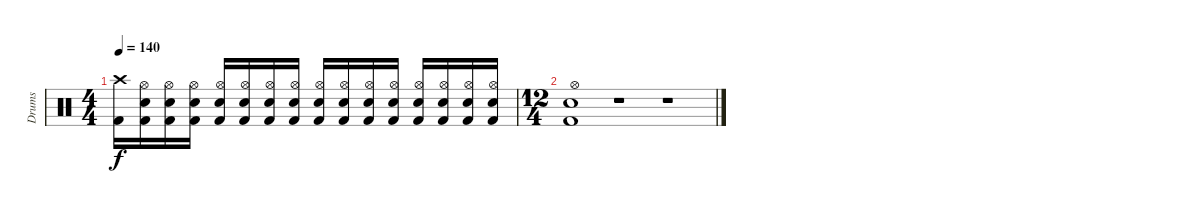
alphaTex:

\track ("Drums" "Drums") {instrument percussion}
\staff {score}
\articulation defaults
\ts (4 4)
\tempo 140
\clef neutral
\ks c
("Crash high (hit)" "Kick (hit) 2").16{dy f} ("Hi-Hat (open)" "Electric Snare (hit)" "Kick (hit) 2").16 ("Hi-Hat (open)" "Electric Snare (hit)" "Kick (hit) 2").16 ("Hi-Hat (open)" "Electric Snare (hit)" "Kick (hit) 2").16 ("Hi-Hat (open)" "Electric Snare (hit)" "Kick (hit) 2").16 ("Hi-Hat (open)" "Electric Snare (hit)" "Kick (hit) 2").16 ("Hi-Hat (open)" "Electric Snare (hit)" "Kick (hit) 2").16 ("Hi-Hat (open)" "Electric Snare (hit)" "Kick (hit) 2").16 ("Hi-Hat (open)" "Electric Snare (hit)" "Kick (hit) 2").16 ("Hi-Hat (open)" "Electric Snare (hit)" "Kick (hit) 2").16 ("Hi-Hat (open)" "Electric Snare (hit)" "Kick (hit) 2").16 ("Hi-Hat (open)" "Electric Snare (hit)" "Kick (hit) 2").16 ("Hi-Hat (open)" "Electric Snare (hit)" "Kick (hit) 2").16 ("Hi-Hat (open)" "Electric Snare (hit)" "Kick (hit) 2").16 ("Hi-Hat (open)" "Electric Snare (hit)" "Kick (hit) 2").16 ("Hi-Hat (open)" "Electric Snare (hit)" "Kick (hit) 2").16 |
\ts (12 4)
("Hi-Hat (open)" "Electric Snare (hit)" "Kick (hit) 2").1 r.1 r.1
